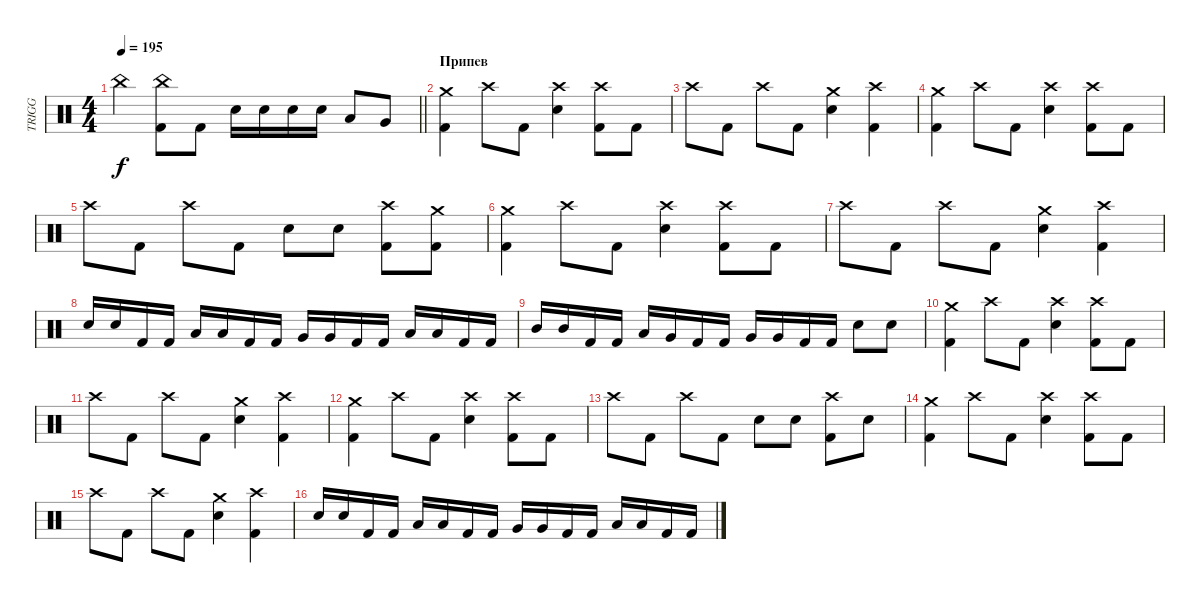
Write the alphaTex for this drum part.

\track ("TRIGG" "TRIGG") {instrument percussion}
\staff {score}
\articulation defaults
\ts (4 4)
\tempo 195
\clef neutral
\barLineRight lightlight
\ks c "China (hit)".4{dy f}
("China (hit)" "Kick (hit) 2").8 "Kick (hit) 2".8 "Electric Snare (hit)".16 "Electric Snare (hit)".16 "Electric Snare (hit)".16 "Electric Snare (hit)".16 "Low Tom (hit)".8 "Very Low Tom (hit)".8 |
\section ("" "Припев")
("Crash medium (hit)" "Kick (hit) 2").4 "Crash high (hit)".8 "Kick (hit) 2".8 ("Crash high (hit)" "Electric Snare (hit)").4 ("Crash high (hit)" "Kick (hit) 2").8 "Kick (hit) 2".8 |
"Crash high (hit)".8 "Kick (hit) 2".8 "Crash high (hit)".8 "Kick (hit) 2".8 ("Crash medium (hit)" "Electric Snare (hit)").4 ("Crash high (hit)" "Kick (hit) 2").4 |
("Crash medium (hit)" "Kick (hit) 2").4 "Crash high (hit)".8 "Kick (hit) 2".8 ("Crash high (hit)" "Electric Snare (hit)").4 ("Crash high (hit)" "Kick (hit) 2").8 "Kick (hit) 2".8 |
"Crash high (hit)".8 "Kick (hit) 2".8 "Crash high (hit)".8 "Kick (hit) 2".8 "Electric Snare (hit)".8 "Electric Snare (hit)".8 ("Crash high (hit)" "Kick (hit) 2").8 ("Crash medium (hit)" "Kick (hit) 2").8 |
("Crash medium (hit)" "Kick (hit) 2").4 "Crash high (hit)".8 "Kick (hit) 2".8 ("Crash high (hit)" "Electric Snare (hit)").4 ("Crash high (hit)" "Kick (hit) 2").8 "Kick (hit) 2".8 |
"Crash high (hit)".8 "Kick (hit) 2".8 "Crash high (hit)".8 "Kick (hit) 2".8 ("Crash medium (hit)" "Electric Snare (hit)").4 ("Crash high (hit)" "Kick (hit) 2").4 |
"Electric Snare (hit)".16 "Electric Snare (hit)".16 "Kick (hit) 2".16 "Kick (hit) 2".16 "Low Tom (hit)".16 "Low Tom (hit)".16 "Kick (hit) 2".16 "Kick (hit) 2".16 "Very Low Tom (hit)".16 "Very Low Tom (hit)".16 "Kick (hit) 2".16 "Kick (hit) 2".16 "Low Floor Tom (hit)".16 "Low Floor Tom (hit)".16 "Kick (hit) 2".16 "Kick (hit) 2".16 |
"Mid Tom (hit)".16 "Mid Tom (hit)".16 "Kick (hit) 2".16 "Kick (hit) 2".16 "Low Tom (hit)".16 "Very Low Tom (hit)".16 "Kick (hit) 2".16 "Kick (hit) 2".16 "Very Low Tom (hit)".16 "Very Low Tom (hit)".16 "Kick (hit) 2".16 "Kick (hit) 2".16 "Electric Snare (hit)".8 "Electric Snare (hit)".8 |
("Crash medium (hit)" "Kick (hit) 2").4 "Crash high (hit)".8 "Kick (hit) 2".8 ("Crash high (hit)" "Electric Snare (hit)").4 ("Crash high (hit)" "Kick (hit) 2").8 "Kick (hit) 2".8 |
"Crash high (hit)".8 "Kick (hit) 2".8 "Crash high (hit)".8 "Kick (hit) 2".8 ("Crash medium (hit)" "Electric Snare (hit)").4 ("Crash high (hit)" "Kick (hit) 2").4 |
("Crash medium (hit)" "Kick (hit) 2").4 "Crash high (hit)".8 "Kick (hit) 2".8 ("Crash high (hit)" "Electric Snare (hit)").4 ("Crash high (hit)" "Kick (hit) 2").8 "Kick (hit) 2".8 |
"Crash high (hit)".8 "Kick (hit) 2".8 "Crash high (hit)".8 "Kick (hit) 2".8 "Electric Snare (hit)".8 "Electric Snare (hit)".8 ("Crash high (hit)" "Kick (hit) 2").8 "Electric Snare (hit)".8 |
("Crash medium (hit)" "Kick (hit) 2").4 "Crash high (hit)".8 "Kick (hit) 2".8 ("Crash high (hit)" "Electric Snare (hit)").4 ("Crash high (hit)" "Kick (hit) 2").8 "Kick (hit) 2".8 |
"Crash high (hit)".8 "Kick (hit) 2".8 "Crash high (hit)".8 "Kick (hit) 2".8 ("Crash medium (hit)" "Electric Snare (hit)").4 ("Crash high (hit)" "Kick (hit) 2").4 |
"Electric Snare (hit)".16 "Electric Snare (hit)".16 "Kick (hit) 2".16 "Kick (hit) 2".16 "Low Tom (hit)".16 "Low Tom (hit)".16 "Kick (hit) 2".16 "Kick (hit) 2".16 "Very Low Tom (hit)".16 "Very Low Tom (hit)".16 "Kick (hit) 2".16 "Kick (hit) 2".16 "Low Floor Tom (hit)".16 "Low Floor Tom (hit)".16 "Kick (hit) 2".16 "Kick (hit) 2".16
